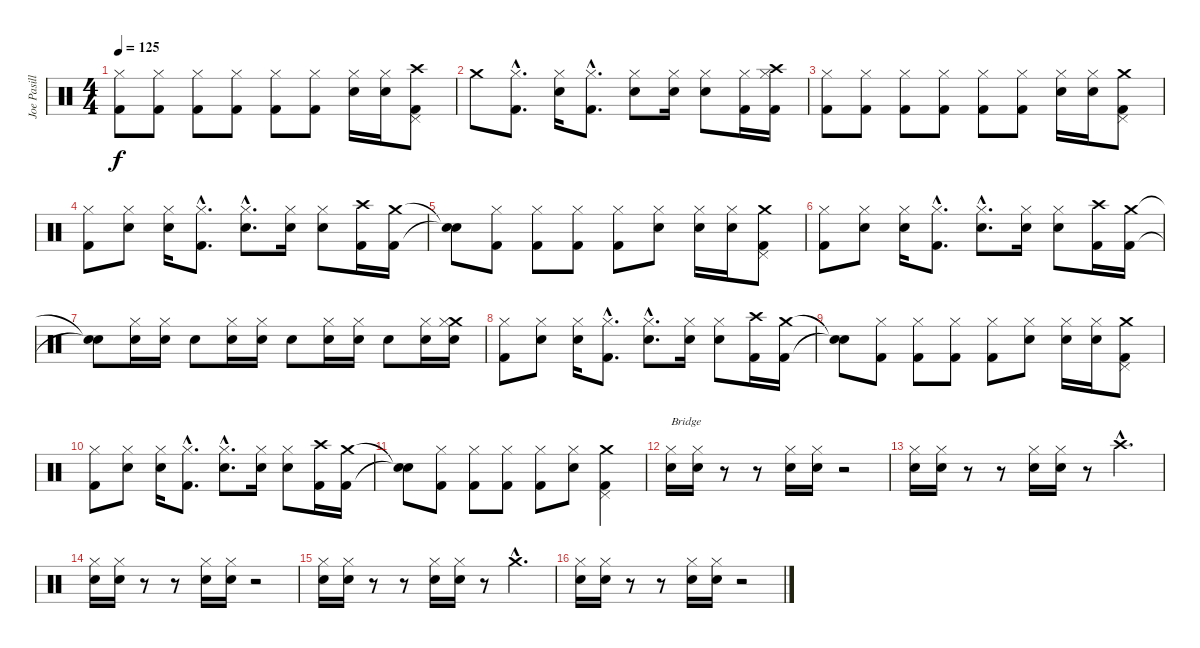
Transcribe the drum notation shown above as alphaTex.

\track ("Joe Pasillas" "Joe Pasill") {instrument percussion}
\staff {score}
\articulation defaults
\ts (4 4)
\tempo 125
\clef neutral
\ks c
("Hi-Hat (closed)" "Kick (hit) 2").8{dy f} ("Hi-Hat (closed)" "Kick (hit) 2").8 ("Hi-Hat (closed)" "Kick (hit) 2").8 ("Hi-Hat (closed)" "Kick (hit) 2").8 ("Hi-Hat (closed)" "Kick (hit) 2").8 ("Hi-Hat (closed)" "Kick (hit) 2").8 ("Hi-Hat (closed)" "Snare (hit) 2").16 ("Hi-Hat (closed)" "Snare (hit) 2").16 ("Crash high (hit)" "Pedal Hi-Hat (hit)" "Kick (hit) 2").8 |
"Crash medium (hit)".8 ("Hi-Hat (closed)"{hac} "Kick (hit) 2"{hac}).8{d} ("Hi-Hat (closed)" "Snare (hit) 2").16 ("Hi-Hat (closed)"{hac} "Kick (hit) 2"{hac}).8{d} ("Hi-Hat (closed)" "Snare (hit) 2").8 ("Hi-Hat (closed)" "Snare (hit) 2").16 ("Hi-Hat (closed)" "Snare (hit) 2").8 ("Hi-Hat (closed)" "Kick (hit) 2").16 ("Crash high (hit)" "Hi-Hat (closed)" "Kick (hit) 2").16 |
("Hi-Hat (closed)" "Kick (hit) 2").8 ("Hi-Hat (closed)" "Kick (hit) 2").8 ("Hi-Hat (closed)" "Kick (hit) 2").8 ("Hi-Hat (closed)" "Kick (hit) 2").8 ("Hi-Hat (closed)" "Kick (hit) 2").8 ("Hi-Hat (closed)" "Kick (hit) 2").8 ("Hi-Hat (closed)" "Snare (hit) 2").16 ("Hi-Hat (closed)" "Snare (hit) 2").16 ("Crash medium (hit)" "Pedal Hi-Hat (hit)" "Kick (hit) 2").8 |
("Hi-Hat (closed)" "Kick (hit) 2").8 ("Hi-Hat (closed)" "Snare (hit) 2").8 ("Hi-Hat (closed)" "Snare (hit) 2").16 ("Hi-Hat (closed)"{hac} "Kick (hit) 2"{hac}).8{d} ("Hi-Hat (closed)"{hac} "Snare (hit) 2"{hac}).8{d} ("Hi-Hat (closed)" "Snare (hit) 2").16 ("Hi-Hat (closed)" "Snare (hit) 2").8 ("Crash high (hit)" "Kick (hit) 2").16 ("Crash medium (hit)" "Kick (hit) 2").16 |
("Snare (hit)"{t} "Snare (hit)"{t}).8 ("Hi-Hat (closed)" "Kick (hit) 2").8 ("Hi-Hat (closed)" "Kick (hit) 2").8 ("Hi-Hat (closed)" "Kick (hit) 2").8 ("Hi-Hat (closed)" "Kick (hit) 2").8 ("Hi-Hat (closed)" "Snare (hit) 2").8 ("Hi-Hat (closed)" "Snare (hit) 2").16 ("Hi-Hat (closed)" "Snare (hit) 2").16 ("Crash medium (hit)" "Pedal Hi-Hat (hit)" "Kick (hit) 2").8 |
("Hi-Hat (closed)" "Kick (hit) 2").8 ("Hi-Hat (closed)" "Snare (hit) 2").8 ("Hi-Hat (closed)" "Snare (hit) 2").16 ("Hi-Hat (closed)"{hac} "Kick (hit) 2"{hac}).8{d} ("Hi-Hat (closed)"{hac} "Snare (hit) 2"{hac}).8{d} ("Hi-Hat (closed)" "Snare (hit) 2").16 ("Hi-Hat (closed)" "Snare (hit) 2").8 ("Crash high (hit)" "Kick (hit) 2").16 ("Crash medium (hit)" "Kick (hit) 2").16 |
("Snare (hit)"{t} "Snare (hit)"{t}).8 ("Hi-Hat (closed)" "Snare (hit) 2").16 ("Hi-Hat (closed)" "Snare (hit) 2").16 "Electric Snare (hit)".8 ("Hi-Hat (closed)" "Snare (hit) 2").16 ("Hi-Hat (closed)" "Snare (hit) 2").16 "Electric Snare (hit)".8 ("Hi-Hat (closed)" "Snare (hit) 2").16 ("Hi-Hat (closed)" "Snare (hit) 2").16 "Electric Snare (hit)".8 ("Hi-Hat (closed)" "Snare (hit) 2").16 ("Crash medium (hit)" "Hi-Hat (closed)" "Snare (hit) 2").16 |
("Hi-Hat (closed)" "Kick (hit) 2").8 ("Hi-Hat (closed)" "Snare (hit) 2").8 ("Hi-Hat (closed)" "Snare (hit) 2").16 ("Hi-Hat (closed)"{hac} "Kick (hit) 2"{hac}).8{d} ("Hi-Hat (closed)"{hac} "Snare (hit) 2"{hac}).8{d} ("Hi-Hat (closed)" "Snare (hit) 2").16 ("Hi-Hat (closed)" "Snare (hit) 2").8 ("Crash high (hit)" "Kick (hit) 2").16 ("Crash medium (hit)" "Kick (hit) 2").16 |
("Snare (hit)"{t} "Snare (hit)"{t}).8 ("Hi-Hat (closed)" "Kick (hit) 2").8 ("Hi-Hat (closed)" "Kick (hit) 2").8 ("Hi-Hat (closed)" "Kick (hit) 2").8 ("Hi-Hat (closed)" "Kick (hit) 2").8 ("Hi-Hat (closed)" "Snare (hit) 2").8 ("Hi-Hat (closed)" "Snare (hit) 2").16 ("Hi-Hat (closed)" "Snare (hit) 2").16 ("Crash medium (hit)" "Pedal Hi-Hat (hit)" "Kick (hit) 2").8 |
("Hi-Hat (closed)" "Kick (hit) 2").8 ("Hi-Hat (closed)" "Snare (hit) 2").8 ("Hi-Hat (closed)" "Snare (hit) 2").16 ("Hi-Hat (closed)"{hac} "Kick (hit) 2"{hac}).8{d} ("Hi-Hat (closed)"{hac} "Snare (hit) 2"{hac}).8{d} ("Hi-Hat (closed)" "Snare (hit) 2").16 ("Hi-Hat (closed)" "Snare (hit) 2").8 ("Crash high (hit)" "Kick (hit) 2").16 ("Crash medium (hit)" "Kick (hit) 2").16 |
("Snare (hit)"{t} "Snare (hit)"{t}).8 ("Hi-Hat (closed)" "Kick (hit) 2").8 ("Hi-Hat (closed)" "Kick (hit) 2").8 ("Hi-Hat (closed)" "Kick (hit) 2").8 ("Hi-Hat (closed)" "Kick (hit) 2").8 ("Hi-Hat (closed)" "Snare (hit) 2").8 ("Crash medium (hit)" "Pedal Hi-Hat (hit)" "Kick (hit) 2").4 |
("Hi-Hat (closed)" "Snare (hit) 2").16{txt "Bridge"} ("Hi-Hat (closed)" "Snare (hit) 2").16 r.8 r.8 ("Hi-Hat (closed)" "Snare (hit) 2").16 ("Hi-Hat (closed)" "Snare (hit) 2").16 r.2 |
("Hi-Hat (closed)" "Snare (hit) 2").16 ("Hi-Hat (closed)" "Snare (hit) 2").16 r.8 r.8 ("Hi-Hat (closed)" "Snare (hit) 2").16 ("Hi-Hat (closed)" "Snare (hit) 2").16 r.8 "Crash high (hit)"{hac}.4{d} |
("Hi-Hat (closed)" "Snare (hit) 2").16 ("Hi-Hat (closed)" "Snare (hit) 2").16 r.8 r.8 ("Hi-Hat (closed)" "Snare (hit) 2").16 ("Hi-Hat (closed)" "Snare (hit) 2").16 r.2 |
("Hi-Hat (closed)" "Snare (hit) 2").16 ("Hi-Hat (closed)" "Snare (hit) 2").16 r.8 r.8 ("Hi-Hat (closed)" "Snare (hit) 2").16 ("Hi-Hat (closed)" "Snare (hit) 2").16 r.8 "Crash medium (hit)"{hac}.4{d} |
("Hi-Hat (closed)" "Snare (hit) 2").16 ("Hi-Hat (closed)" "Snare (hit) 2").16 r.8 r.8 ("Hi-Hat (closed)" "Snare (hit) 2").16 ("Hi-Hat (closed)" "Snare (hit) 2").16 r.2
